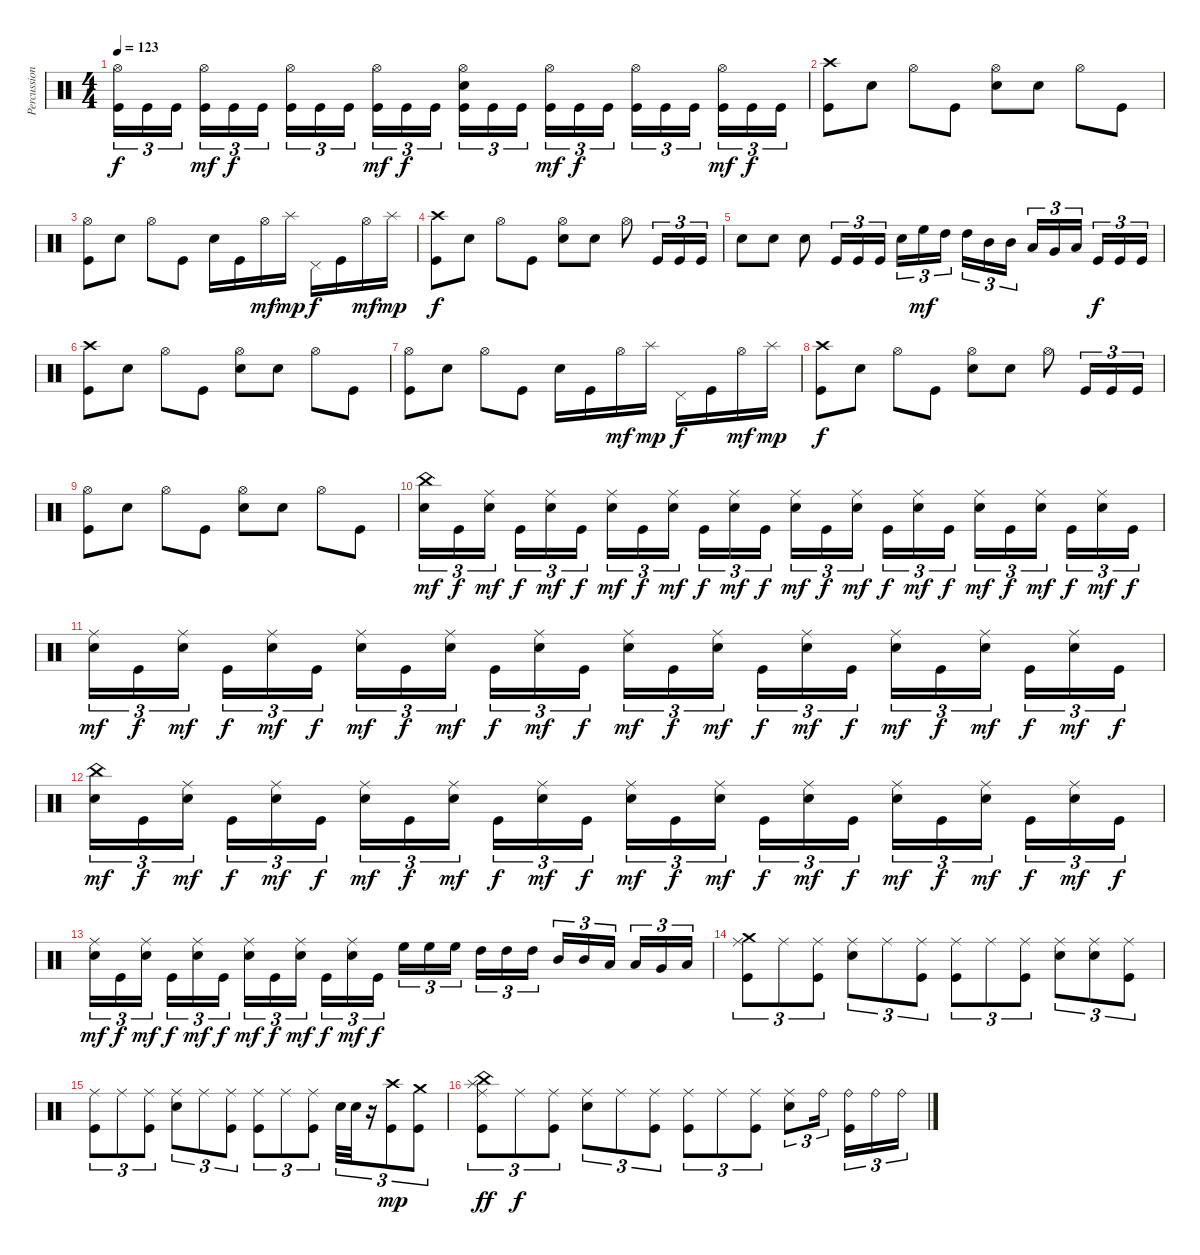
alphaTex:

\track ("Percussions" "Percussion") {instrument percussion}
\staff {score}
\articulation defaults
\ts (4 4)
\tempo 123
\clef neutral
\ks c
("Hi-Hat (open)" "Kick (hit)").16{tu (3 2) dy f} "Kick (hit)".16{tu (3 2)} "Kick (hit)".16{tu (3 2)} ("Hi-Hat (open)" "Kick (hit)").16{tu (3 2) dy mf} "Kick (hit)".16{tu (3 2) dy f} "Kick (hit)".16{tu (3 2)} ("Hi-Hat (open)" "Kick (hit)").16{tu (3 2)} "Kick (hit)".16{tu (3 2)} "Kick (hit)".16{tu (3 2)} ("Hi-Hat (open)" "Kick (hit)").16{tu (3 2) dy mf} "Kick (hit)".16{tu (3 2) dy f} "Kick (hit)".16{tu (3 2)} ("Hi-Hat (open)" "Electric Snare (hit)" "Kick (hit)").16{tu (3 2)} "Kick (hit)".16{tu (3 2)} "Kick (hit)".16{tu (3 2)} ("Hi-Hat (open)" "Kick (hit)").16{tu (3 2) dy mf} "Kick (hit)".16{tu (3 2) dy f} "Kick (hit)".16{tu (3 2)} ("Hi-Hat (open)" "Kick (hit)").16{tu (3 2)} "Kick (hit)".16{tu (3 2)} "Kick (hit)".16{tu (3 2)} ("Hi-Hat (open)" "Kick (hit)").16{tu (3 2) dy mf} "Kick (hit)".16{tu (3 2) dy f} "Kick (hit)".16{tu (3 2)} |
("Crash high (hit)" "Kick (hit)").8 "Snare (hit)".8 "Hi-Hat (open)".8 "Kick (hit)".8 ("Hi-Hat (open)" "Electric Snare (hit)").8 "Snare (hit)".8 "Hi-Hat (open)".8 "Kick (hit)".8 |
("Hi-Hat (open)" "Kick (hit)").8 "Snare (hit)".8 "Hi-Hat (open)".8 "Kick (hit)".8 "Electric Snare (hit)".16 "Kick (hit)".16 "Hi-Hat (open)".16{dy mf} "Splash (hit)".16{dy mp} "Pedal Hi-Hat (hit)".16{dy f} "Kick (hit)".16 "Hi-Hat (open)".16{dy mf} "Splash (hit)".16{dy mp} |
("Crash high (hit)" "Kick (hit)").8{dy f} "Snare (hit)".8 "Hi-Hat (open)".8 "Kick (hit)".8 ("Hi-Hat (open)" "Electric Snare (hit)").8 "Snare (hit)".8 "Hi-Hat (open)".8 "Kick (hit)".16{tu (3 2)} "Kick (hit)".16{tu (3 2)} "Kick (hit)".16{tu (3 2)} |
"Electric Snare (hit)".8 "Electric Snare (hit)".8 "Electric Snare (hit)".8 "Kick (hit)".16{tu (3 2)} "Kick (hit)".16{tu (3 2)} "Kick (hit)".16{tu (3 2)} "Electric Snare (hit)".16{tu (3 2)} "High Floor Tom (hit)".16{tu (3 2) dy mf} "High Tom (hit)".16{tu (3 2)} "High Tom (hit)".16{tu (3 2)} "Mid Tom (hit)".16{tu (3 2)} "Mid Tom (hit)".16{tu (3 2)} "Low Tom (hit)".16{tu (3 2)} "Very Low Tom (hit)".16{tu (3 2)} "Low Floor Tom (hit)".16{tu (3 2)} "Kick (hit)".16{tu (3 2) dy f} "Kick (hit)".16{tu (3 2)} "Kick (hit)".16{tu (3 2)} |
("Crash high (hit)" "Kick (hit)").8 "Snare (hit)".8 "Hi-Hat (open)".8 "Kick (hit)".8 ("Hi-Hat (open)" "Electric Snare (hit)").8 "Snare (hit)".8 "Hi-Hat (open)".8 "Kick (hit)".8 |
("Hi-Hat (open)" "Kick (hit)").8 "Snare (hit)".8 "Hi-Hat (open)".8 "Kick (hit)".8 "Electric Snare (hit)".16 "Kick (hit)".16 "Hi-Hat (open)".16{dy mf} "Splash (hit)".16{dy mp} "Pedal Hi-Hat (hit)".16{dy f} "Kick (hit)".16 "Hi-Hat (open)".16{dy mf} "Splash (hit)".16{dy mp} |
("Crash high (hit)" "Kick (hit)").8{dy f} "Snare (hit)".8 "Hi-Hat (open)".8 "Kick (hit)".8 ("Hi-Hat (open)" "Electric Snare (hit)").8 "Snare (hit)".8 "Hi-Hat (open)".8 "Kick (hit)".16{tu (3 2)} "Kick (hit)".16{tu (3 2)} "Kick (hit)".16{tu (3 2)} |
("Hi-Hat (open)" "Kick (hit)").8 "Snare (hit)".8 "Hi-Hat (open)".8 "Kick (hit)".8 ("Hi-Hat (open)" "Electric Snare (hit)").8 "Snare (hit)".8 "Hi-Hat (open)".8 "Kick (hit)".8 |
("China (hit)" "Electric Snare (hit)").16{tu (3 2) dy mf} "Kick (hit)".16{tu (3 2) dy f} ("Ride (middle)" "Electric Snare (hit)").16{tu (3 2) dy mf} "Kick (hit)".16{tu (3 2) dy f} ("Ride (middle)" "Electric Snare (hit)").16{tu (3 2) dy mf} "Kick (hit)".16{tu (3 2) dy f} ("Ride (middle)" "Electric Snare (hit)").16{tu (3 2) dy mf} "Kick (hit)".16{tu (3 2) dy f} ("Ride (middle)" "Electric Snare (hit)").16{tu (3 2) dy mf} "Kick (hit)".16{tu (3 2) dy f} ("Ride (middle)" "Electric Snare (hit)").16{tu (3 2) dy mf} "Kick (hit)".16{tu (3 2) dy f} ("Ride (middle)" "Electric Snare (hit)").16{tu (3 2) dy mf} "Kick (hit)".16{tu (3 2) dy f} ("Ride (middle)" "Electric Snare (hit)").16{tu (3 2) dy mf} "Kick (hit)".16{tu (3 2) dy f} ("Ride (middle)" "Electric Snare (hit)").16{tu (3 2) dy mf} "Kick (hit)".16{tu (3 2) dy f} ("Ride (middle)" "Electric Snare (hit)").16{tu (3 2) dy mf} "Kick (hit)".16{tu (3 2) dy f} ("Ride (middle)" "Electric Snare (hit)").16{tu (3 2) dy mf} "Kick (hit)".16{tu (3 2) dy f} ("Ride (middle)" "Electric Snare (hit)").16{tu (3 2) dy mf} "Kick (hit)".16{tu (3 2) dy f} |
("Ride (middle)" "Electric Snare (hit)").16{tu (3 2) dy mf} "Kick (hit)".16{tu (3 2) dy f} ("Ride (middle)" "Electric Snare (hit)").16{tu (3 2) dy mf} "Kick (hit)".16{tu (3 2) dy f} ("Ride (middle)" "Electric Snare (hit)").16{tu (3 2) dy mf} "Kick (hit)".16{tu (3 2) dy f} ("Ride (middle)" "Electric Snare (hit)").16{tu (3 2) dy mf} "Kick (hit)".16{tu (3 2) dy f} ("Ride (middle)" "Electric Snare (hit)").16{tu (3 2) dy mf} "Kick (hit)".16{tu (3 2) dy f} ("Ride (middle)" "Electric Snare (hit)").16{tu (3 2) dy mf} "Kick (hit)".16{tu (3 2) dy f} ("Ride (middle)" "Electric Snare (hit)").16{tu (3 2) dy mf} "Kick (hit)".16{tu (3 2) dy f} ("Ride (middle)" "Electric Snare (hit)").16{tu (3 2) dy mf} "Kick (hit)".16{tu (3 2) dy f} ("Ride (middle)" "Electric Snare (hit)").16{tu (3 2) dy mf} "Kick (hit)".16{tu (3 2) dy f} ("Ride (middle)" "Electric Snare (hit)").16{tu (3 2) dy mf} "Kick (hit)".16{tu (3 2) dy f} ("Ride (middle)" "Electric Snare (hit)").16{tu (3 2) dy mf} "Kick (hit)".16{tu (3 2) dy f} ("Ride (middle)" "Electric Snare (hit)").16{tu (3 2) dy mf} "Kick (hit)".16{tu (3 2) dy f} |
("China (hit)" "Electric Snare (hit)").16{tu (3 2) dy mf} "Kick (hit)".16{tu (3 2) dy f} ("Ride (middle)" "Electric Snare (hit)").16{tu (3 2) dy mf} "Kick (hit)".16{tu (3 2) dy f} ("Ride (middle)" "Electric Snare (hit)").16{tu (3 2) dy mf} "Kick (hit)".16{tu (3 2) dy f} ("Ride (middle)" "Electric Snare (hit)").16{tu (3 2) dy mf} "Kick (hit)".16{tu (3 2) dy f} ("Ride (middle)" "Electric Snare (hit)").16{tu (3 2) dy mf} "Kick (hit)".16{tu (3 2) dy f} ("Ride (middle)" "Electric Snare (hit)").16{tu (3 2) dy mf} "Kick (hit)".16{tu (3 2) dy f} ("Ride (middle)" "Electric Snare (hit)").16{tu (3 2) dy mf} "Kick (hit)".16{tu (3 2) dy f} ("Ride (middle)" "Electric Snare (hit)").16{tu (3 2) dy mf} "Kick (hit)".16{tu (3 2) dy f} ("Ride (middle)" "Electric Snare (hit)").16{tu (3 2) dy mf} "Kick (hit)".16{tu (3 2) dy f} ("Ride (middle)" "Electric Snare (hit)").16{tu (3 2) dy mf} "Kick (hit)".16{tu (3 2) dy f} ("Ride (middle)" "Electric Snare (hit)").16{tu (3 2) dy mf} "Kick (hit)".16{tu (3 2) dy f} ("Ride (middle)" "Electric Snare (hit)").16{tu (3 2) dy mf} "Kick (hit)".16{tu (3 2) dy f} |
("Ride (middle)" "Electric Snare (hit)").16{tu (3 2) dy mf} "Kick (hit)".16{tu (3 2) dy f} ("Ride (middle)" "Electric Snare (hit)").16{tu (3 2) dy mf} "Kick (hit)".16{tu (3 2) dy f} ("Ride (middle)" "Electric Snare (hit)").16{tu (3 2) dy mf} "Kick (hit)".16{tu (3 2) dy f} ("Ride (middle)" "Electric Snare (hit)").16{tu (3 2) dy mf} "Kick (hit)".16{tu (3 2) dy f} ("Ride (middle)" "Electric Snare (hit)").16{tu (3 2) dy mf} "Kick (hit)".16{tu (3 2) dy f} ("Ride (middle)" "Electric Snare (hit)").16{tu (3 2) dy mf} "Kick (hit)".16{tu (3 2) dy f} "High Floor Tom (hit)".16{tu (3 2)} "High Floor Tom (hit)".16{tu (3 2)} "High Floor Tom (hit)".16{tu (3 2)} "High Tom (hit)".16{tu (3 2)} "High Tom (hit)".16{tu (3 2)} "High Tom (hit)".16{tu (3 2)} "Mid Tom (hit)".16{tu (3 2)} "Mid Tom (hit)".16{tu (3 2)} "Low Tom (hit)".16{tu (3 2)} "Low Tom (hit)".16{tu (3 2)} "Very Low Tom (hit)".16{tu (3 2)} "Low Floor Tom (hit)".16{tu (3 2)} |
("Crash medium (hit)" "Ride (middle)" "Kick (hit)").8{tu (3 2)} "Ride (middle)".8{tu (3 2)} ("Ride (middle)" "Kick (hit)").8{tu (3 2)} ("Ride (middle)" "Electric Snare (hit)").8{tu (3 2)} "Ride (middle)".8{tu (3 2)} ("Ride (middle)" "Kick (hit)").8{tu (3 2)} ("Ride (middle)" "Kick (hit)").8{tu (3 2)} "Ride (middle)".8{tu (3 2)} ("Ride (middle)" "Kick (hit)").8{tu (3 2)} ("Ride (middle)" "Electric Snare (hit)").8{tu (3 2)} ("Ride (middle)" "Snare (hit)").8{tu (3 2)} ("Ride (middle)" "Kick (hit)").8{tu (3 2)} |
("Ride (middle)" "Kick (hit)").8{tu (3 2)} "Ride (middle)".8{tu (3 2)} ("Ride (middle)" "Kick (hit)").8{tu (3 2)} ("Ride (middle)" "Electric Snare (hit)").8{tu (3 2)} "Ride (middle)".8{tu (3 2)} ("Ride (middle)" "Kick (hit)").8{tu (3 2)} ("Ride (middle)" "Kick (hit)").8{tu (3 2)} "Ride (middle)".8{tu (3 2)} ("Ride (middle)" "Kick (hit)").8{tu (3 2)} "Electric Snare (hit)".32{tu (3 2)} "Electric Snare (hit)".32{tu (3 2)} r.16{tu (3 2)} ("Crash high (hit)" "Kick (hit)").8{tu (3 2) dy mp} ("Crash medium (hit)" "Kick (hit)").8{tu (3 2)} |
("China (hit)" "Splash (hit)" "Ride (middle)" "Kick (hit)").8{tu (3 2) dy ff} "Ride (middle)".8{tu (3 2) dy f} ("Ride (middle)" "Kick (hit)").8{tu (3 2)} ("Ride (middle)" "Electric Snare (hit)").8{tu (3 2)} "Ride (middle)".8{tu (3 2)} ("Ride (middle)" "Kick (hit)").8{tu (3 2)} ("Ride (middle)" "Kick (hit)").8{tu (3 2)} "Ride (middle)".8{tu (3 2)} ("Ride (middle)" "Kick (hit)").8{tu (3 2)} ("Ride (middle)" "Electric Snare (hit)").8{tu (3 2)} "Ride (bell)".16{tu (3 2)} ("Ride (bell)" "Kick (hit)").16{tu (3 2)} "Ride (bell)".16{tu (3 2)} "Ride (bell)".16{tu (3 2)}
